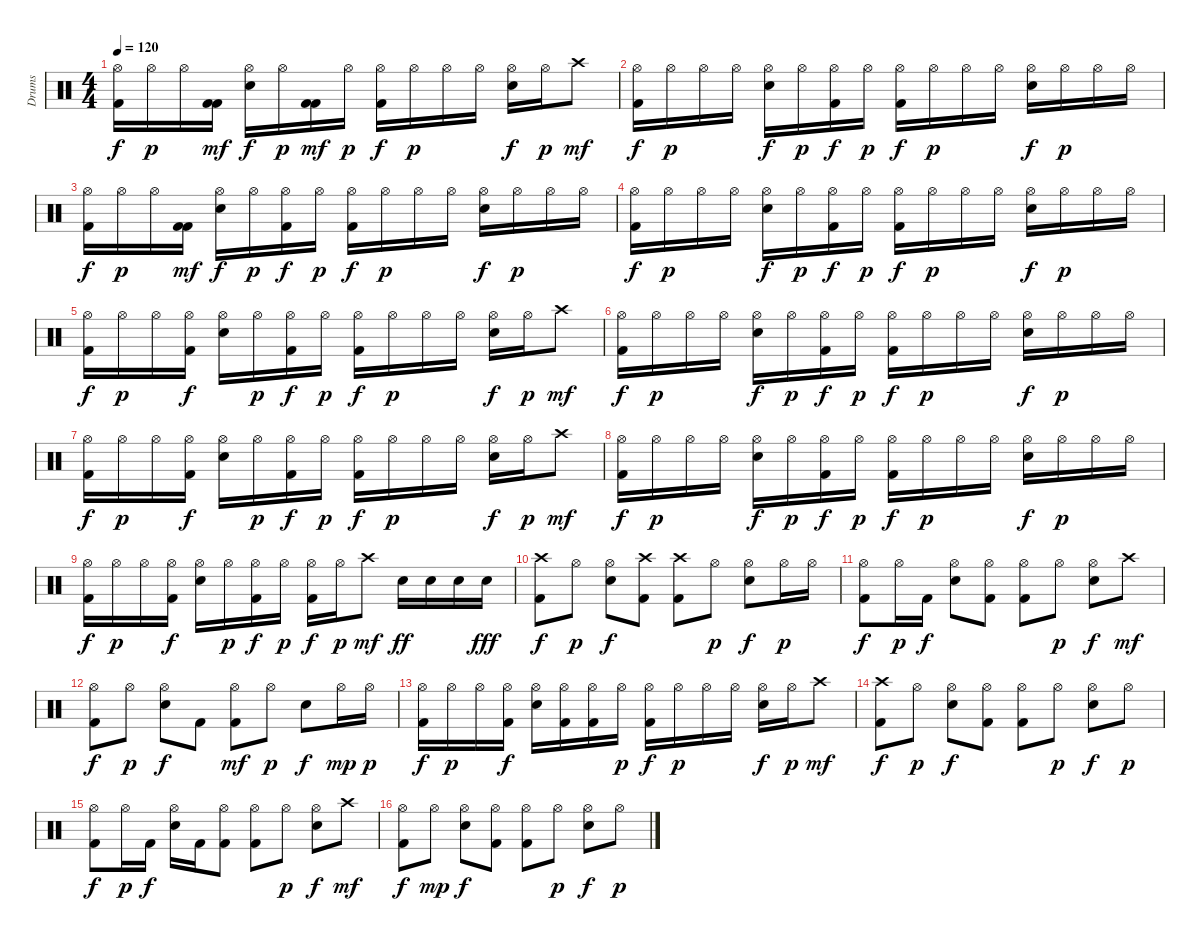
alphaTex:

\track ("Drums" "Drums") {instrument percussion}
\staff {score}
\articulation defaults
\ts (4 4)
\tempo 120
\clef neutral
\ks c
("Hi-Hat (open)" "Kick (hit) 2").16{dy f} "Hi-Hat (open)".16{dy p} "Hi-Hat (open)".16 ("Kick (hit) 2" "Kick (hit) 2").16{dy mf} ("Hi-Hat (open)" "Electric Snare (hit)").16{dy f} "Hi-Hat (open)".16{dy p} ("Kick (hit) 2" "Kick (hit) 2").16{dy mf} "Hi-Hat (open)".16{dy p} ("Hi-Hat (open)" "Kick (hit) 2").16{dy f} "Hi-Hat (open)".16{dy p} "Hi-Hat (open)".16 "Hi-Hat (open)".16 ("Hi-Hat (open)" "Electric Snare (hit)").16{dy f} "Hi-Hat (open)".16{dy p} "Crash high (hit)".8{dy mf} |
("Hi-Hat (open)" "Kick (hit) 2").16{dy f} "Hi-Hat (open)".16{dy p} "Hi-Hat (open)".16 "Hi-Hat (open)".16 ("Hi-Hat (open)" "Electric Snare (hit)").16{dy f} "Hi-Hat (open)".16{dy p} ("Hi-Hat (open)" "Kick (hit) 2").16{dy f} "Hi-Hat (open)".16{dy p} ("Hi-Hat (open)" "Kick (hit) 2").16{dy f} "Hi-Hat (open)".16{dy p} "Hi-Hat (open)".16 "Hi-Hat (open)".16 ("Hi-Hat (open)" "Electric Snare (hit)").16{dy f} "Hi-Hat (open)".16{dy p} "Hi-Hat (open)".16 "Hi-Hat (open)".16 |
("Hi-Hat (open)" "Kick (hit) 2").16{dy f} "Hi-Hat (open)".16{dy p} "Hi-Hat (open)".16 ("Kick (hit) 2" "Kick (hit) 2").16{dy mf} ("Hi-Hat (open)" "Electric Snare (hit)").16{dy f} "Hi-Hat (open)".16{dy p} ("Hi-Hat (open)" "Kick (hit) 2").16{dy f} "Hi-Hat (open)".16{dy p} ("Hi-Hat (open)" "Kick (hit) 2").16{dy f} "Hi-Hat (open)".16{dy p} "Hi-Hat (open)".16 "Hi-Hat (open)".16 ("Hi-Hat (open)" "Electric Snare (hit)").16{dy f} "Hi-Hat (open)".16{dy p} "Hi-Hat (open)".16 "Hi-Hat (open)".16 |
("Hi-Hat (open)" "Kick (hit) 2").16{dy f} "Hi-Hat (open)".16{dy p} "Hi-Hat (open)".16 "Hi-Hat (open)".16 ("Hi-Hat (open)" "Electric Snare (hit)").16{dy f} "Hi-Hat (open)".16{dy p} ("Hi-Hat (open)" "Kick (hit) 2").16{dy f} "Hi-Hat (open)".16{dy p} ("Hi-Hat (open)" "Kick (hit) 2").16{dy f} "Hi-Hat (open)".16{dy p} "Hi-Hat (open)".16 "Hi-Hat (open)".16 ("Hi-Hat (open)" "Electric Snare (hit)").16{dy f} "Hi-Hat (open)".16{dy p} "Hi-Hat (open)".16 "Hi-Hat (open)".16 |
("Hi-Hat (open)" "Kick (hit) 2").16{dy f} "Hi-Hat (open)".16{dy p} "Hi-Hat (open)".16 ("Hi-Hat (open)" "Kick (hit) 2").16{dy f} ("Hi-Hat (open)" "Electric Snare (hit)").16 "Hi-Hat (open)".16{dy p} ("Hi-Hat (open)" "Kick (hit) 2").16{dy f} "Hi-Hat (open)".16{dy p} ("Hi-Hat (open)" "Kick (hit) 2").16{dy f} "Hi-Hat (open)".16{dy p} "Hi-Hat (open)".16 "Hi-Hat (open)".16 ("Hi-Hat (open)" "Electric Snare (hit)").16{dy f} "Hi-Hat (open)".16{dy p} "Crash high (hit)".8{dy mf} |
("Hi-Hat (open)" "Kick (hit) 2").16{dy f} "Hi-Hat (open)".16{dy p} "Hi-Hat (open)".16 "Hi-Hat (open)".16 ("Hi-Hat (open)" "Electric Snare (hit)").16{dy f} "Hi-Hat (open)".16{dy p} ("Hi-Hat (open)" "Kick (hit) 2").16{dy f} "Hi-Hat (open)".16{dy p} ("Hi-Hat (open)" "Kick (hit) 2").16{dy f} "Hi-Hat (open)".16{dy p} "Hi-Hat (open)".16 "Hi-Hat (open)".16 ("Hi-Hat (open)" "Electric Snare (hit)").16{dy f} "Hi-Hat (open)".16{dy p} "Hi-Hat (open)".16 "Hi-Hat (open)".16 |
("Hi-Hat (open)" "Kick (hit) 2").16{dy f} "Hi-Hat (open)".16{dy p} "Hi-Hat (open)".16 ("Hi-Hat (open)" "Kick (hit) 2").16{dy f} ("Hi-Hat (open)" "Electric Snare (hit)").16 "Hi-Hat (open)".16{dy p} ("Hi-Hat (open)" "Kick (hit) 2").16{dy f} "Hi-Hat (open)".16{dy p} ("Hi-Hat (open)" "Kick (hit) 2").16{dy f} "Hi-Hat (open)".16{dy p} "Hi-Hat (open)".16 "Hi-Hat (open)".16 ("Hi-Hat (open)" "Electric Snare (hit)").16{dy f} "Hi-Hat (open)".16{dy p} "Crash high (hit)".8{dy mf} |
("Hi-Hat (open)" "Kick (hit) 2").16{dy f} "Hi-Hat (open)".16{dy p} "Hi-Hat (open)".16 "Hi-Hat (open)".16 ("Hi-Hat (open)" "Electric Snare (hit)").16{dy f} "Hi-Hat (open)".16{dy p} ("Hi-Hat (open)" "Kick (hit) 2").16{dy f} "Hi-Hat (open)".16{dy p} ("Hi-Hat (open)" "Kick (hit) 2").16{dy f} "Hi-Hat (open)".16{dy p} "Hi-Hat (open)".16 "Hi-Hat (open)".16 ("Hi-Hat (open)" "Electric Snare (hit)").16{dy f} "Hi-Hat (open)".16{dy p} "Hi-Hat (open)".16 "Hi-Hat (open)".16 |
("Hi-Hat (open)" "Kick (hit) 2").16{dy f} "Hi-Hat (open)".16{dy p} "Hi-Hat (open)".16 ("Hi-Hat (open)" "Kick (hit) 2").16{dy f} ("Hi-Hat (open)" "Electric Snare (hit)").16 "Hi-Hat (open)".16{dy p} ("Hi-Hat (open)" "Kick (hit) 2").16{dy f} "Hi-Hat (open)".16{dy p} ("Hi-Hat (open)" "Kick (hit) 2").16{dy f} "Hi-Hat (open)".16{dy p} "Crash high (hit)".8{dy mf} "Electric Snare (hit)".16{dy ff} "Electric Snare (hit)".16 "Electric Snare (hit)".16 "Electric Snare (hit)".16{dy fff} |
("Crash high (hit)" "Kick (hit) 2").8{dy f} "Hi-Hat (open)".8{dy p} ("Hi-Hat (open)" "Electric Snare (hit)").8{dy f} ("Crash high (hit)" "Kick (hit) 2").8 ("Crash high (hit)" "Kick (hit) 2").8 "Hi-Hat (open)".8{dy p} ("Hi-Hat (open)" "Electric Snare (hit)").8{dy f} "Hi-Hat (open)".16{dy p} "Hi-Hat (open)".16 |
("Hi-Hat (open)" "Kick (hit) 2").8{dy f} "Hi-Hat (open)".16{dy p} "Kick (hit) 2".16{dy f} ("Hi-Hat (open)" "Electric Snare (hit)").8 ("Hi-Hat (open)" "Kick (hit) 2").8 ("Hi-Hat (open)" "Kick (hit) 2").8 "Hi-Hat (open)".8{dy p} ("Hi-Hat (open)" "Electric Snare (hit)").8{dy f} "Crash high (hit)".8{dy mf} |
("Hi-Hat (open)" "Kick (hit) 2").8{dy f} "Hi-Hat (open)".8{dy p} ("Hi-Hat (open)" "Electric Snare (hit)").8{dy f} "Kick (hit) 2".8 ("Hi-Hat (open)" "Kick (hit) 2").8{dy mf} "Hi-Hat (open)".8{dy p} "Electric Snare (hit)".8{dy f} "Hi-Hat (open)".16{dy mp} "Hi-Hat (open)".16{dy p} |
("Hi-Hat (open)" "Kick (hit) 2").16{dy f} "Hi-Hat (open)".16{dy p} "Hi-Hat (open)".16 ("Hi-Hat (open)" "Kick (hit) 2").16{dy f} ("Hi-Hat (open)" "Electric Snare (hit)").16 ("Hi-Hat (open)" "Kick (hit) 2").16 ("Hi-Hat (open)" "Kick (hit) 2").16 "Hi-Hat (open)".16{dy p} ("Hi-Hat (open)" "Kick (hit) 2").16{dy f} "Hi-Hat (open)".16{dy p} "Hi-Hat (open)".16 "Hi-Hat (open)".16 ("Hi-Hat (open)" "Electric Snare (hit)").16{dy f} "Hi-Hat (open)".16{dy p} "Crash high (hit)".8{dy mf} |
("Crash high (hit)" "Kick (hit) 2").8{dy f} "Hi-Hat (open)".8{dy p} ("Hi-Hat (open)" "Electric Snare (hit)").8{dy f} ("Hi-Hat (open)" "Kick (hit) 2").8 ("Hi-Hat (open)" "Kick (hit) 2").8 "Hi-Hat (open)".8{dy p} ("Hi-Hat (open)" "Electric Snare (hit)").8{dy f} "Hi-Hat (open)".8{dy p} |
("Hi-Hat (open)" "Kick (hit) 2").8{dy f} "Hi-Hat (open)".16{dy p} "Kick (hit) 2".16{dy f} ("Hi-Hat (open)" "Electric Snare (hit)").16 "Kick (hit) 2".16 ("Hi-Hat (open)" "Kick (hit) 2").8 ("Hi-Hat (open)" "Kick (hit) 2").8 "Hi-Hat (open)".8{dy p} ("Hi-Hat (open)" "Electric Snare (hit)").8{dy f} "Crash high (hit)".8{dy mf} |
("Hi-Hat (open)" "Kick (hit) 2").8{dy f} "Hi-Hat (open)".8{dy mp} ("Hi-Hat (open)" "Electric Snare (hit)").8{dy f} ("Hi-Hat (open)" "Kick (hit) 2").8 ("Hi-Hat (open)" "Kick (hit) 2").8 "Hi-Hat (open)".8{dy p} ("Hi-Hat (open)" "Electric Snare (hit)").8{dy f} "Hi-Hat (open)".8{dy p}
